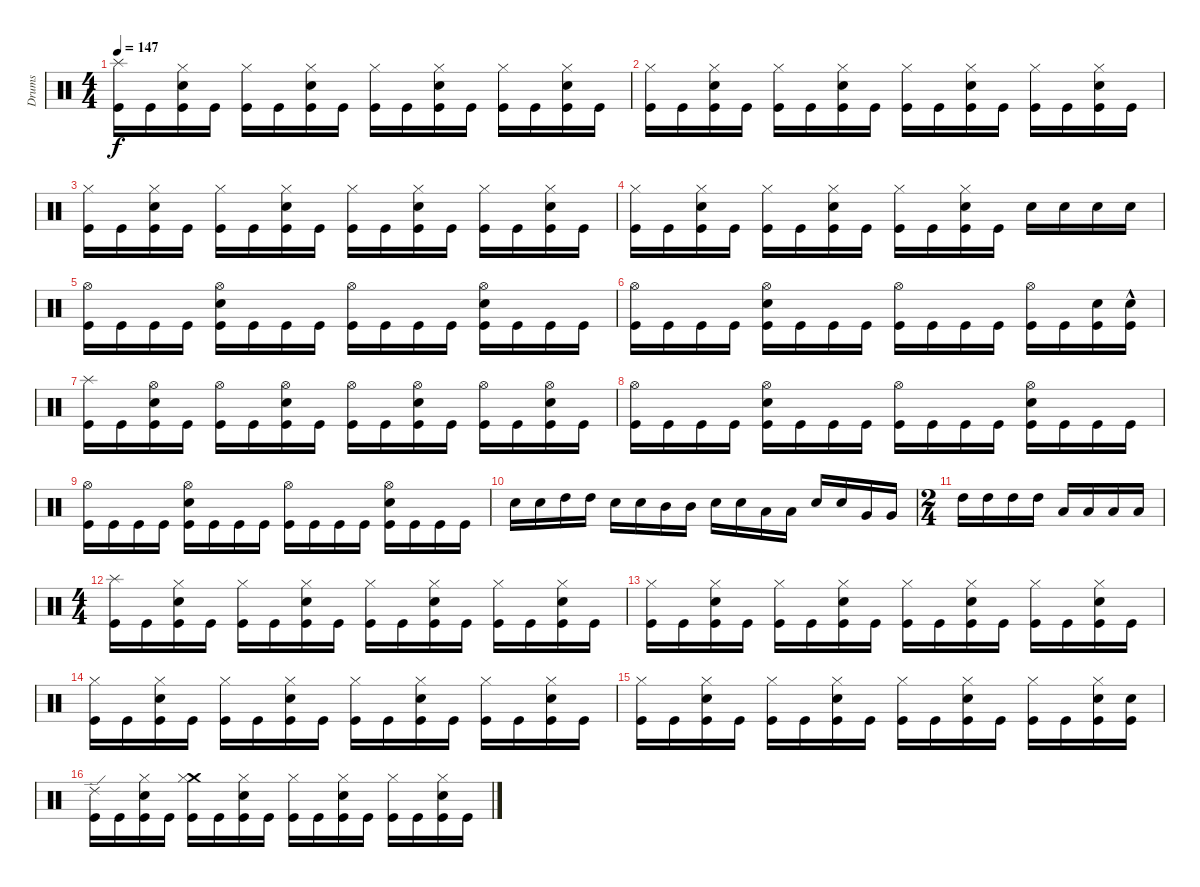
\track ("Drums" "Drums") {instrument percussion}
\staff {score}
\articulation defaults
\ts (4 4)
\tempo 147
\clef neutral
\ks c
("Splash (hit)" "Kick (hit)").16{dy f} "Kick (hit)".16 ("Snare (hit) 2" "Kick (hit)" "Hi-Hat (closed)").16 "Kick (hit)".16 ("Hi-Hat (closed)" "Kick (hit)").16 "Kick (hit)".16 ("Snare (hit) 2" "Hi-Hat (closed)" "Kick (hit)").16 "Kick (hit)".16 ("Kick (hit)" "Hi-Hat (closed)").16 "Kick (hit)".16 ("Hi-Hat (closed)" "Snare (hit) 2" "Kick (hit)").16 "Kick (hit)".16 ("Kick (hit)" "Hi-Hat (closed)").16 "Kick (hit)".16 ("Snare (hit) 2" "Kick (hit)" "Hi-Hat (closed)").16 "Kick (hit)".16 |
("Hi-Hat (closed)" "Kick (hit)").16 "Kick (hit)".16 ("Hi-Hat (closed)" "Snare (hit) 2" "Kick (hit)").16 "Kick (hit)".16 ("Kick (hit)" "Hi-Hat (closed)").16 "Kick (hit)".16 ("Snare (hit) 2" "Hi-Hat (closed)" "Kick (hit)").16 "Kick (hit)".16 ("Kick (hit)" "Hi-Hat (closed)").16 "Kick (hit)".16 ("Kick (hit)" "Hi-Hat (closed)" "Snare (hit) 2").16 "Kick (hit)".16 ("Kick (hit)" "Hi-Hat (closed)").16 "Kick (hit)".16 ("Snare (hit) 2" "Hi-Hat (closed)" "Kick (hit)").16 "Kick (hit)".16 |
("Hi-Hat (closed)" "Kick (hit)").16 "Kick (hit)".16 ("Hi-Hat (closed)" "Snare (hit) 2" "Kick (hit)").16 "Kick (hit)".16 ("Kick (hit)" "Hi-Hat (closed)").16 "Kick (hit)".16 ("Snare (hit) 2" "Hi-Hat (closed)" "Kick (hit)").16 "Kick (hit)".16 ("Kick (hit)" "Hi-Hat (closed)").16 "Kick (hit)".16 ("Snare (hit) 2" "Kick (hit)" "Hi-Hat (closed)").16 "Kick (hit)".16 ("Kick (hit)" "Hi-Hat (closed)").16 "Kick (hit)".16 ("Hi-Hat (closed)" "Kick (hit)" "Snare (hit) 2").16 "Kick (hit)".16 |
("Hi-Hat (closed)" "Kick (hit)").16 "Kick (hit)".16 ("Kick (hit)" "Snare (hit) 2" "Hi-Hat (closed)").16 "Kick (hit)".16 ("Hi-Hat (closed)" "Kick (hit)").16 "Kick (hit)".16 ("Hi-Hat (closed)" "Snare (hit) 2" "Kick (hit)").16 "Kick (hit)".16 ("Hi-Hat (closed)" "Kick (hit)").16 "Kick (hit)".16 ("Hi-Hat (closed)" "Snare (hit) 2" "Kick (hit)").16 "Kick (hit)".16 "Snare (hit) 2".16 "Snare (hit) 2".16 "Snare (hit) 2".16 "Snare (hit) 2".16 |
("Kick (hit)" "Hi-Hat (open)").16 "Kick (hit)".16 "Kick (hit)".16 "Kick (hit)".16 ("Kick (hit)" "Hi-Hat (open)" "Snare (hit) 2").16 "Kick (hit)".16 "Kick (hit)".16 "Kick (hit)".16 ("Kick (hit)" "Hi-Hat (open)").16 "Kick (hit)".16 "Kick (hit)".16 "Kick (hit)".16 ("Hi-Hat (open)" "Snare (hit) 2" "Kick (hit)").16 "Kick (hit)".16 "Kick (hit)".16 "Kick (hit)".16 |
("Kick (hit)" "Hi-Hat (open)").16 "Kick (hit)".16 "Kick (hit)".16 "Kick (hit)".16 ("Kick (hit)" "Snare (hit) 2" "Hi-Hat (open)").16 "Kick (hit)".16 "Kick (hit)".16 "Kick (hit)".16 ("Kick (hit)" "Hi-Hat (open)").16 "Kick (hit)".16 "Kick (hit)".16 "Kick (hit)".16 ("Kick (hit)" "Hi-Hat (open)").16 "Kick (hit)".16 ("Kick (hit)" "Snare (hit) 2").16 ("Snare (hit) 2"{hac} "Kick (hit)").16 |
("Splash (hit)" "Kick (hit)").16 "Kick (hit)".16 ("Kick (hit)" "Snare (hit) 2" "Hi-Hat (open)").16 "Kick (hit)".16 ("Kick (hit)" "Hi-Hat (open)").16 "Kick (hit)".16 ("Kick (hit)" "Snare (hit) 2" "Hi-Hat (open)").16 "Kick (hit)".16 ("Kick (hit)" "Hi-Hat (open)").16 "Kick (hit)".16 ("Hi-Hat (open)" "Kick (hit)" "Snare (hit) 2").16 "Kick (hit)".16 ("Hi-Hat (open)" "Kick (hit)").16 "Kick (hit)".16 ("Hi-Hat (open)" "Snare (hit) 2" "Kick (hit)").16 "Kick (hit)".16 |
("Kick (hit)" "Hi-Hat (open)").16 "Kick (hit)".16 "Kick (hit)".16 "Kick (hit)".16 ("Snare (hit) 2" "Hi-Hat (open)" "Kick (hit)").16 "Kick (hit)".16 "Kick (hit)".16 "Kick (hit)".16 ("Hi-Hat (open)" "Kick (hit)").16 "Kick (hit)".16 "Kick (hit)".16 "Kick (hit)".16 ("Snare (hit) 2" "Hi-Hat (open)" "Kick (hit)").16 "Kick (hit)".16 "Kick (hit)".16 "Kick (hit)".16 |
("Kick (hit)" "Hi-Hat (open)").16 "Kick (hit)".16 "Kick (hit)".16 "Kick (hit)".16 ("Kick (hit)" "Hi-Hat (open)" "Snare (hit) 2").16 "Kick (hit)".16 "Kick (hit)".16 "Kick (hit)".16 ("Hi-Hat (open)" "Kick (hit)").16 "Kick (hit)".16 "Kick (hit)".16 "Kick (hit)".16 ("Kick (hit)" "Hi-Hat (open)" "Snare (hit) 2").16 "Kick (hit)".16 "Kick (hit)".16 "Kick (hit)".16 |
"Snare (hit) 2".16 "Snare (hit) 2".16 "High Tom (hit)".16 "High Tom (hit)".16 "Snare (hit) 2".16 "Snare (hit) 2".16 "Mid Tom (hit)".16 "Mid Tom (hit)".16 "Snare (hit) 2".16 "Snare (hit) 2".16 "Low Tom (hit)".16 "Low Tom (hit)".16 "Snare (hit) 2".16 "Snare (hit) 2".16 "Very Low Tom (hit)".16 "Very Low Tom (hit)".16 |
\ts (2 4)
"High Tom (hit)".16 "High Tom (hit)".16 "High Tom (hit)".16 "High Tom (hit)".16 "Low Tom (hit)".16 "Low Tom (hit)".16 "Low Tom (hit)".16 "Low Tom (hit)".16 |
\ts (4 4)
("Splash (hit)" "Kick (hit)").16 "Kick (hit)".16 ("Kick (hit)" "Snare (hit) 2" "Hi-Hat (closed)").16 "Kick (hit)".16 ("Kick (hit)" "Hi-Hat (closed)").16 "Kick (hit)".16 ("Snare (hit) 2" "Hi-Hat (closed)" "Kick (hit)").16 "Kick (hit)".16 ("Hi-Hat (closed)" "Kick (hit)").16 "Kick (hit)".16 ("Hi-Hat (closed)" "Snare (hit) 2" "Kick (hit)").16 "Kick (hit)".16 ("Hi-Hat (closed)" "Kick (hit)").16 "Kick (hit)".16 ("Kick (hit)" "Hi-Hat (closed)" "Snare (hit) 2").16 "Kick (hit)".16 |
("Kick (hit)" "Hi-Hat (closed)").16 "Kick (hit)".16 ("Kick (hit)" "Hi-Hat (closed)" "Snare (hit) 2").16 "Kick (hit)".16 ("Kick (hit)" "Hi-Hat (closed)").16 "Kick (hit)".16 ("Snare (hit) 2" "Kick (hit)" "Hi-Hat (closed)").16 "Kick (hit)".16 ("Hi-Hat (closed)" "Kick (hit)").16 "Kick (hit)".16 ("Snare (hit) 2" "Kick (hit)" "Hi-Hat (closed)").16 "Kick (hit)".16 ("Kick (hit)" "Hi-Hat (closed)").16 "Kick (hit)".16 ("Hi-Hat (closed)" "Snare (hit) 2" "Kick (hit)").16 "Kick (hit)".16 |
("Kick (hit)" "Hi-Hat (closed)").16 "Kick (hit)".16 ("Snare (hit) 2" "Kick (hit)" "Hi-Hat (closed)").16 "Kick (hit)".16 ("Kick (hit)" "Hi-Hat (closed)").16 "Kick (hit)".16 ("Kick (hit)" "Hi-Hat (closed)" "Snare (hit) 2").16 "Kick (hit)".16 ("Hi-Hat (closed)" "Kick (hit)").16 "Kick (hit)".16 ("Snare (hit) 2" "Kick (hit)" "Hi-Hat (closed)").16 "Kick (hit)".16 ("Kick (hit)" "Hi-Hat (closed)").16 "Kick (hit)".16 ("Kick (hit)" "Hi-Hat (closed)" "Snare (hit) 2").16 "Kick (hit)".16 |
("Kick (hit)" "Hi-Hat (closed)").16 "Kick (hit)".16 ("Snare (hit) 2" "Kick (hit)" "Hi-Hat (closed)").16 "Kick (hit)".16 ("Hi-Hat (closed)" "Kick (hit)").16 "Kick (hit)".16 ("Snare (hit) 2" "Kick (hit)" "Hi-Hat (closed)").16 "Kick (hit)".16 ("Kick (hit)" "Hi-Hat (closed)").16 "Kick (hit)".16 ("Hi-Hat (closed)" "Snare (hit) 2" "Kick (hit)").16 "Kick (hit)".16 ("Kick (hit)" "Hi-Hat (closed)").16 "Kick (hit)".16 ("Snare (hit) 2" "Hi-Hat (closed)" "Kick (hit)").16 ("Snare (hit) 2" "Kick (hit)").16 |
("Kick (hit)" "Ride (edge) 2").16 "Kick (hit)".16 ("Kick (hit)" "Snare (hit) 2" "Hi-Hat (closed)").16 "Kick (hit)".16 ("Crash medium (hit)" "Kick (hit)" "Hi-Hat (closed)").16 "Kick (hit)".16 ("Hi-Hat (closed)" "Kick (hit)" "Snare (hit) 2").16 "Kick (hit)".16 ("Hi-Hat (closed)" "Kick (hit)").16 "Kick (hit)".16 ("Hi-Hat (closed)" "Snare (hit) 2" "Kick (hit)").16 "Kick (hit)".16 ("Kick (hit)" "Hi-Hat (closed)").16 "Kick (hit)".16 ("Kick (hit)" "Snare (hit) 2" "Hi-Hat (closed)").16 "Kick (hit)".16
